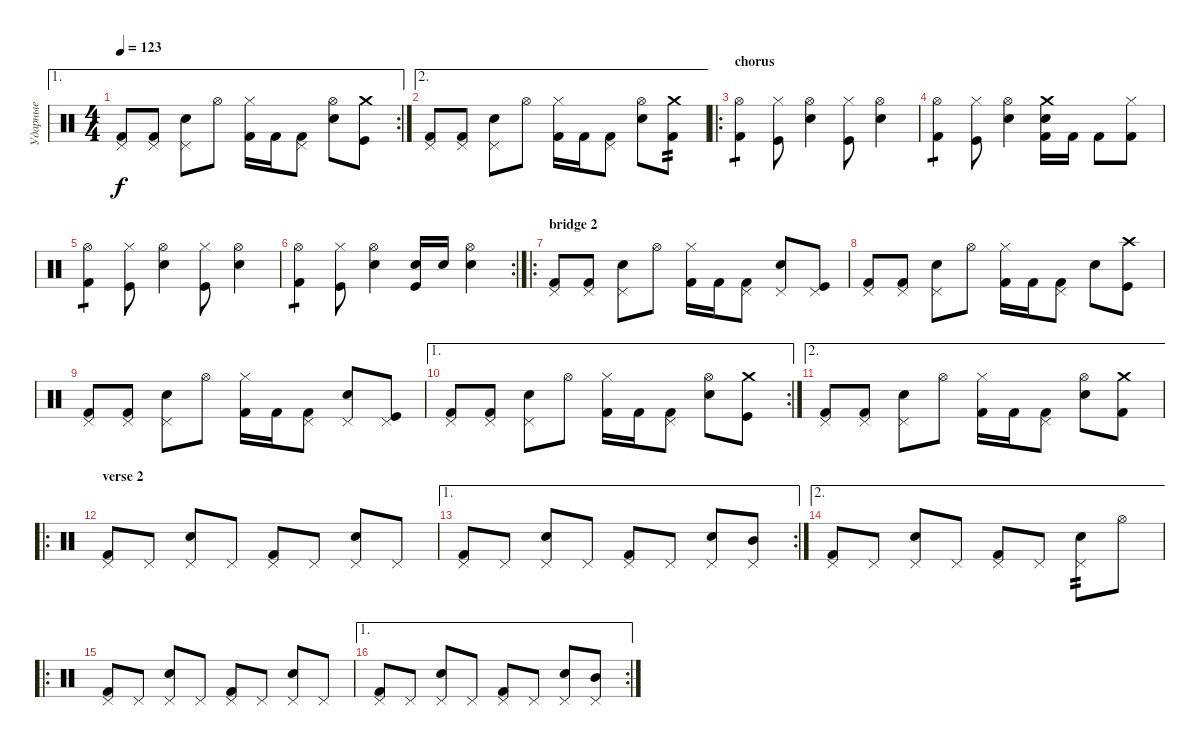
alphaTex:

\track ("Ударные" "Ударные") {instrument percussion}
\staff {score}
\articulation defaults
\ae 1
\rc 2
\ts (4 4)
\tempo 123
\clef neutral
\ks c
("Pedal Hi-Hat (hit)" "Kick (hit) 2").8{dy f} ("Pedal Hi-Hat (hit)" "Kick (hit) 2").8 ("Pedal Hi-Hat (hit)" "Snare (hit) 2").8 "Hi-Hat (open)".8 ("Hi-Hat (closed)" "Kick (hit) 2").16 "Kick (hit) 2".16 ("Pedal Hi-Hat (hit)" "Kick (hit) 2").8 ("Hi-Hat (open)" "Snare (hit) 2").8 ("Crash medium (hit)" "Kick (hit)").8 |
\ae 2
("Pedal Hi-Hat (hit)" "Kick (hit) 2").8 ("Pedal Hi-Hat (hit)" "Kick (hit) 2").8 ("Pedal Hi-Hat (hit)" "Snare (hit) 2").8 "Hi-Hat (open)".8 ("Hi-Hat (closed)" "Kick (hit) 2").16 "Kick (hit) 2".16 ("Pedal Hi-Hat (hit)" "Kick (hit) 2").8 ("Hi-Hat (open)" "Snare (hit) 2").8 ("Crash medium (hit)" "Kick (hit) 2").8{tp 2} |
\ro
\section ("" "chorus")
("Hi-Hat (open)" "Kick (hit) 2").4{tp 1} ("Hi-Hat (closed)" "Kick (hit)").8 ("Hi-Hat (open)" "Snare (hit) 2").4 ("Hi-Hat (closed)" "Kick (hit)").8 ("Hi-Hat (open)" "Snare (hit) 2").4 |
("Hi-Hat (open)" "Kick (hit) 2").4{tp 1} ("Hi-Hat (closed)" "Kick (hit)").8 ("Hi-Hat (open)" "Snare (hit) 2").4 ("Crash medium (hit)" "Snare (hit) 2" "Kick (hit) 2").16 "Kick (hit) 2".16 "Kick (hit) 2".8 ("Hi-Hat (closed)" "Kick (hit) 2").8 |
("Hi-Hat (open)" "Kick (hit) 2").4{tp 1} ("Hi-Hat (closed)" "Kick (hit)").8 ("Hi-Hat (open)" "Snare (hit) 2").4 ("Hi-Hat (closed)" "Kick (hit)").8 ("Hi-Hat (open)" "Snare (hit) 2").4 |
\rc 2
("Hi-Hat (open)" "Kick (hit) 2").4{tp 1} ("Hi-Hat (closed)" "Kick (hit)").8 ("Hi-Hat (open)" "Snare (hit) 2").4 ("Snare (hit) 2" "Kick (hit)").16 "Snare (hit) 2".16 ("Hi-Hat (open)" "Snare (hit) 2").4 |
\ro
\section ("" "bridge 2")
("Pedal Hi-Hat (hit)" "Kick (hit) 2").8 ("Pedal Hi-Hat (hit)" "Kick (hit) 2").8 ("Pedal Hi-Hat (hit)" "Snare (hit) 2").8 "Hi-Hat (open)".8 ("Hi-Hat (closed)" "Kick (hit) 2").16 "Kick (hit) 2".16 ("Pedal Hi-Hat (hit)" "Kick (hit) 2").8 ("Pedal Hi-Hat (hit)" "Snare (hit) 2").8 ("Pedal Hi-Hat (hit)" "Kick (hit)").8 |
("Pedal Hi-Hat (hit)" "Kick (hit) 2").8 ("Pedal Hi-Hat (hit)" "Kick (hit) 2").8 ("Pedal Hi-Hat (hit)" "Snare (hit) 2").8 "Hi-Hat (open)".8 ("Hi-Hat (closed)" "Kick (hit) 2").16 "Kick (hit) 2".16 ("Pedal Hi-Hat (hit)" "Kick (hit) 2").8 "Snare (hit) 2".8 ("Crash high (hit)" "Kick (hit)").8 |
("Pedal Hi-Hat (hit)" "Kick (hit) 2").8 ("Pedal Hi-Hat (hit)" "Kick (hit) 2").8 ("Pedal Hi-Hat (hit)" "Snare (hit) 2").8 "Hi-Hat (open)".8 ("Hi-Hat (closed)" "Kick (hit) 2").16 "Kick (hit) 2".16 ("Pedal Hi-Hat (hit)" "Kick (hit) 2").8 ("Pedal Hi-Hat (hit)" "Snare (hit) 2").8 ("Pedal Hi-Hat (hit)" "Kick (hit)").8 |
\ae 1
\rc 2
("Pedal Hi-Hat (hit)" "Kick (hit) 2").8 ("Pedal Hi-Hat (hit)" "Kick (hit) 2").8 ("Pedal Hi-Hat (hit)" "Snare (hit) 2").8 "Hi-Hat (open)".8 ("Hi-Hat (closed)" "Kick (hit) 2").16 "Kick (hit) 2".16 ("Pedal Hi-Hat (hit)" "Kick (hit) 2").8 ("Hi-Hat (open)" "Snare (hit) 2").8 ("Crash medium (hit)" "Kick (hit)").8 |
\ae 2
("Pedal Hi-Hat (hit)" "Kick (hit) 2").8 ("Pedal Hi-Hat (hit)" "Kick (hit) 2").8 ("Pedal Hi-Hat (hit)" "Snare (hit) 2").8 "Hi-Hat (open)".8 ("Hi-Hat (closed)" "Kick (hit) 2").16 "Kick (hit) 2".16 ("Pedal Hi-Hat (hit)" "Kick (hit) 2").8 ("Hi-Hat (open)" "Snare (hit) 2").8 ("Crash medium (hit)" "Kick (hit) 2").8 |
\ro
\section ("" "verse 2")
("Pedal Hi-Hat (hit)" "Kick (hit) 2").8 "Pedal Hi-Hat (hit)".8 ("Pedal Hi-Hat (hit)" "Snare (hit) 2").8 "Pedal Hi-Hat (hit)".8 ("Pedal Hi-Hat (hit)" "Kick (hit) 2").8 "Pedal Hi-Hat (hit)".8 ("Pedal Hi-Hat (hit)" "Snare (hit) 2").8 "Pedal Hi-Hat (hit)".8 |
\ae 1
\rc 2
("Pedal Hi-Hat (hit)" "Kick (hit) 2").8 "Pedal Hi-Hat (hit)".8 ("Pedal Hi-Hat (hit)" "Snare (hit) 2").8 "Pedal Hi-Hat (hit)".8 ("Pedal Hi-Hat (hit)" "Kick (hit) 2").8 "Pedal Hi-Hat (hit)".8 ("Pedal Hi-Hat (hit)" "Snare (hit) 2").8 ("Pedal Hi-Hat (hit)" "Mid Tom (hit)").8 |
\ae 2
("Pedal Hi-Hat (hit)" "Kick (hit) 2").8 "Pedal Hi-Hat (hit)".8 ("Pedal Hi-Hat (hit)" "Snare (hit) 2").8 "Pedal Hi-Hat (hit)".8 ("Pedal Hi-Hat (hit)" "Kick (hit) 2").8 "Pedal Hi-Hat (hit)".8 ("Pedal Hi-Hat (hit)" "Snare (hit) 2").8{tp 2} "Hi-Hat (open)".8 |
\ro
("Pedal Hi-Hat (hit)" "Kick (hit) 2").8 "Pedal Hi-Hat (hit)".8 ("Pedal Hi-Hat (hit)" "Snare (hit) 2").8 "Pedal Hi-Hat (hit)".8 ("Pedal Hi-Hat (hit)" "Kick (hit) 2").8 "Pedal Hi-Hat (hit)".8 ("Pedal Hi-Hat (hit)" "Snare (hit) 2").8 "Pedal Hi-Hat (hit)".8 |
\ae 1
\rc 2
("Pedal Hi-Hat (hit)" "Kick (hit) 2").8 "Pedal Hi-Hat (hit)".8 ("Pedal Hi-Hat (hit)" "Snare (hit) 2").8 "Pedal Hi-Hat (hit)".8 ("Pedal Hi-Hat (hit)" "Kick (hit) 2").8 "Pedal Hi-Hat (hit)".8 ("Pedal Hi-Hat (hit)" "Snare (hit) 2").8 ("Pedal Hi-Hat (hit)" "Mid Tom (hit)").8
